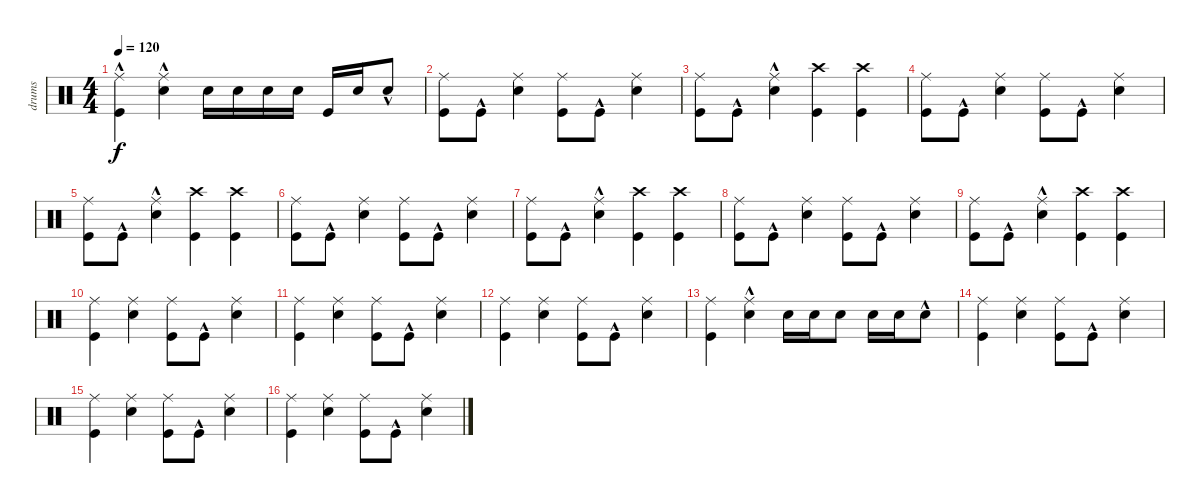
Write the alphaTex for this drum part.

\track ("drums" "drums") {instrument percussion}
\staff {score}
\articulation defaults
\ts (4 4)
\tempo 120
\clef neutral
\ks c
("Kick (hit)"{hac} "Ride (middle)").4{dy f} ("Snare (hit) 2" "Ride (middle)"{hac}).4 "Snare (hit) 2".16 "Snare (hit) 2".16 "Snare (hit) 2".16 "Snare (hit) 2".16 "Kick (hit)".16 "Snare (hit) 2".16 "Snare (hit) 2"{hac}.8 |
("Kick (hit)" "Ride (middle)").8 "Kick (hit)"{hac}.8 ("Snare (hit) 2" "Ride (middle)").4 ("Kick (hit)" "Ride (middle)").8 "Kick (hit)"{hac}.8 ("Snare (hit) 2" "Ride (middle)").4 |
("Kick (hit)" "Ride (middle)").8 "Kick (hit)"{hac}.8 ("Snare (hit) 2" "Ride (middle)"{hac}).4 ("Kick (hit)" "Crash high (hit)").4 ("Kick (hit)" "Crash high (hit)").4 |
("Kick (hit)" "Ride (middle)").8 "Kick (hit)"{hac}.8 ("Snare (hit) 2" "Ride (middle)").4 ("Kick (hit)" "Ride (middle)").8 "Kick (hit)"{hac}.8 ("Snare (hit) 2" "Ride (middle)").4 |
("Kick (hit)" "Ride (middle)").8 "Kick (hit)"{hac}.8 ("Snare (hit) 2" "Ride (middle)"{hac}).4 ("Kick (hit)" "Crash high (hit)").4 ("Kick (hit)" "Crash high (hit)").4 |
("Kick (hit)" "Ride (middle)").8 "Kick (hit)"{hac}.8 ("Snare (hit) 2" "Ride (middle)").4 ("Kick (hit)" "Ride (middle)").8 "Kick (hit)"{hac}.8 ("Snare (hit) 2" "Ride (middle)").4 |
("Kick (hit)" "Ride (middle)").8 "Kick (hit)"{hac}.8 ("Snare (hit) 2" "Ride (middle)"{hac}).4 ("Kick (hit)" "Crash high (hit)").4 ("Kick (hit)" "Crash high (hit)").4 |
("Kick (hit)" "Ride (middle)").8 "Kick (hit)"{hac}.8 ("Snare (hit) 2" "Ride (middle)").4 ("Kick (hit)" "Ride (middle)").8 "Kick (hit)"{hac}.8 ("Snare (hit) 2" "Ride (middle)").4 |
("Kick (hit)" "Ride (middle)").8 "Kick (hit)"{hac}.8 ("Snare (hit) 2" "Ride (middle)"{hac}).4 ("Kick (hit)" "Crash high (hit)").4 ("Kick (hit)" "Crash high (hit)").4 |
("Kick (hit)" "Ride (middle)").4 ("Snare (hit) 2" "Ride (middle)").4 ("Kick (hit)" "Ride (middle)").8 "Kick (hit)"{hac}.8 ("Snare (hit) 2" "Ride (middle)").4 |
("Kick (hit)" "Ride (middle)").4 ("Snare (hit) 2" "Ride (middle)").4 ("Kick (hit)" "Ride (middle)").8 "Kick (hit)"{hac}.8 ("Snare (hit) 2" "Ride (middle)").4 |
("Kick (hit)" "Ride (middle)").4 ("Snare (hit) 2" "Ride (middle)").4 ("Kick (hit)" "Ride (middle)").8 "Kick (hit)"{hac}.8 ("Snare (hit) 2" "Ride (middle)").4 |
("Kick (hit)" "Ride (middle)").4 ("Snare (hit) 2" "Ride (middle)"{hac}).4 "Snare (hit) 2".16 "Snare (hit) 2".16 "Snare (hit) 2".8 "Snare (hit) 2".16 "Snare (hit) 2".16 "Snare (hit) 2"{hac}.8 |
("Kick (hit)" "Ride (middle)").4 ("Snare (hit) 2" "Ride (middle)").4 ("Kick (hit)" "Ride (middle)").8 "Kick (hit)"{hac}.8 ("Snare (hit) 2" "Ride (middle)").4 |
("Kick (hit)" "Ride (middle)").4 ("Snare (hit) 2" "Ride (middle)").4 ("Kick (hit)" "Ride (middle)").8 "Kick (hit)"{hac}.8 ("Snare (hit) 2" "Ride (middle)").4 |
("Kick (hit)" "Ride (middle)").4 ("Snare (hit) 2" "Ride (middle)").4 ("Kick (hit)" "Ride (middle)").8 "Kick (hit)"{hac}.8 ("Snare (hit) 2" "Ride (middle)").4
